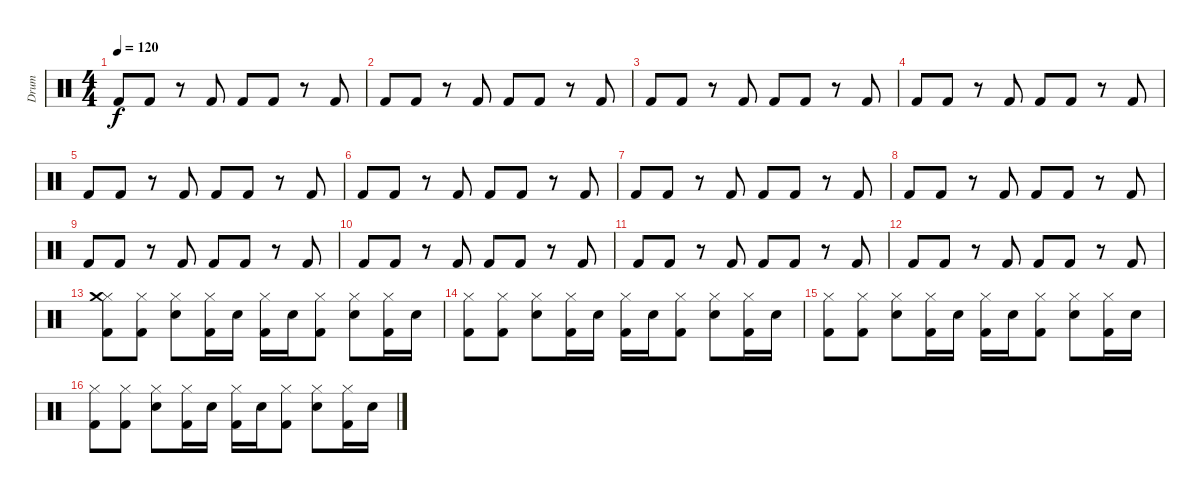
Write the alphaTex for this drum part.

\track ("Drum" "Drum") {instrument percussion}
\staff {score}
\articulation defaults
\ts (4 4)
\tempo 120
\clef neutral
\ks c "Kick (hit) 2".8{dy f} "Kick (hit) 2".8
r.8 "Kick (hit) 2".8 "Kick (hit) 2".8 "Kick (hit) 2".8 r.8 "Kick (hit) 2".8 |
"Kick (hit) 2".8 "Kick (hit) 2".8 r.8 "Kick (hit) 2".8 "Kick (hit) 2".8 "Kick (hit) 2".8 r.8 "Kick (hit) 2".8 |
"Kick (hit) 2".8 "Kick (hit) 2".8 r.8 "Kick (hit) 2".8 "Kick (hit) 2".8 "Kick (hit) 2".8 r.8 "Kick (hit) 2".8 |
"Kick (hit) 2".8 "Kick (hit) 2".8 r.8 "Kick (hit) 2".8 "Kick (hit) 2".8 "Kick (hit) 2".8 r.8 "Kick (hit) 2".8 |
"Kick (hit) 2".8 "Kick (hit) 2".8 r.8 "Kick (hit) 2".8 "Kick (hit) 2".8 "Kick (hit) 2".8 r.8 "Kick (hit) 2".8 |
"Kick (hit) 2".8 "Kick (hit) 2".8 r.8 "Kick (hit) 2".8 "Kick (hit) 2".8 "Kick (hit) 2".8 r.8 "Kick (hit) 2".8 |
"Kick (hit) 2".8 "Kick (hit) 2".8 r.8 "Kick (hit) 2".8 "Kick (hit) 2".8 "Kick (hit) 2".8 r.8 "Kick (hit) 2".8 |
"Kick (hit) 2".8 "Kick (hit) 2".8 r.8 "Kick (hit) 2".8 "Kick (hit) 2".8 "Kick (hit) 2".8 r.8 "Kick (hit) 2".8 |
"Kick (hit) 2".8 "Kick (hit) 2".8 r.8 "Kick (hit) 2".8 "Kick (hit) 2".8 "Kick (hit) 2".8 r.8 "Kick (hit) 2".8 |
"Kick (hit) 2".8 "Kick (hit) 2".8 r.8 "Kick (hit) 2".8 "Kick (hit) 2".8 "Kick (hit) 2".8 r.8 "Kick (hit) 2".8 |
"Kick (hit) 2".8 "Kick (hit) 2".8 r.8 "Kick (hit) 2".8 "Kick (hit) 2".8 "Kick (hit) 2".8 r.8 "Kick (hit) 2".8 |
"Kick (hit) 2".8 "Kick (hit) 2".8 r.8 "Kick (hit) 2".8 "Kick (hit) 2".8 "Kick (hit) 2".8 r.8 "Kick (hit) 2".8 |
("Hi-Hat (closed)" "Crash medium (hit)" "Kick (hit) 2").8 ("Hi-Hat (closed)" "Kick (hit) 2").8 ("Hi-Hat (closed)" "Electric Snare (hit)").8 ("Hi-Hat (closed)" "Kick (hit) 2").16 "Electric Snare (hit)".16 ("Hi-Hat (closed)" "Kick (hit) 2").16 "Electric Snare (hit)".16 ("Hi-Hat (closed)" "Kick (hit) 2").8 ("Hi-Hat (closed)" "Electric Snare (hit)").8 ("Hi-Hat (closed)" "Kick (hit) 2").16 "Electric Snare (hit)".16 |
("Hi-Hat (closed)" "Kick (hit) 2").8 ("Hi-Hat (closed)" "Kick (hit) 2").8 ("Hi-Hat (closed)" "Electric Snare (hit)").8 ("Hi-Hat (closed)" "Kick (hit) 2").16 "Electric Snare (hit)".16 ("Hi-Hat (closed)" "Kick (hit) 2").16 "Electric Snare (hit)".16 ("Hi-Hat (closed)" "Kick (hit) 2").8 ("Hi-Hat (closed)" "Electric Snare (hit)").8 ("Hi-Hat (closed)" "Kick (hit) 2").16 "Electric Snare (hit)".16 |
("Hi-Hat (closed)" "Kick (hit) 2").8 ("Hi-Hat (closed)" "Kick (hit) 2").8 ("Hi-Hat (closed)" "Electric Snare (hit)").8 ("Hi-Hat (closed)" "Kick (hit) 2").16 "Electric Snare (hit)".16 ("Hi-Hat (closed)" "Kick (hit) 2").16 "Electric Snare (hit)".16 ("Hi-Hat (closed)" "Kick (hit) 2").8 ("Hi-Hat (closed)" "Electric Snare (hit)").8 ("Hi-Hat (closed)" "Kick (hit) 2").16 "Electric Snare (hit)".16 |
("Hi-Hat (closed)" "Kick (hit) 2").8 ("Hi-Hat (closed)" "Kick (hit) 2").8 ("Hi-Hat (closed)" "Electric Snare (hit)").8 ("Hi-Hat (closed)" "Kick (hit) 2").16 "Electric Snare (hit)".16 ("Hi-Hat (closed)" "Kick (hit) 2").16 "Electric Snare (hit)".16 ("Hi-Hat (closed)" "Kick (hit) 2").8 ("Hi-Hat (closed)" "Electric Snare (hit)").8 ("Hi-Hat (closed)" "Kick (hit) 2").16 "Electric Snare (hit)".16
